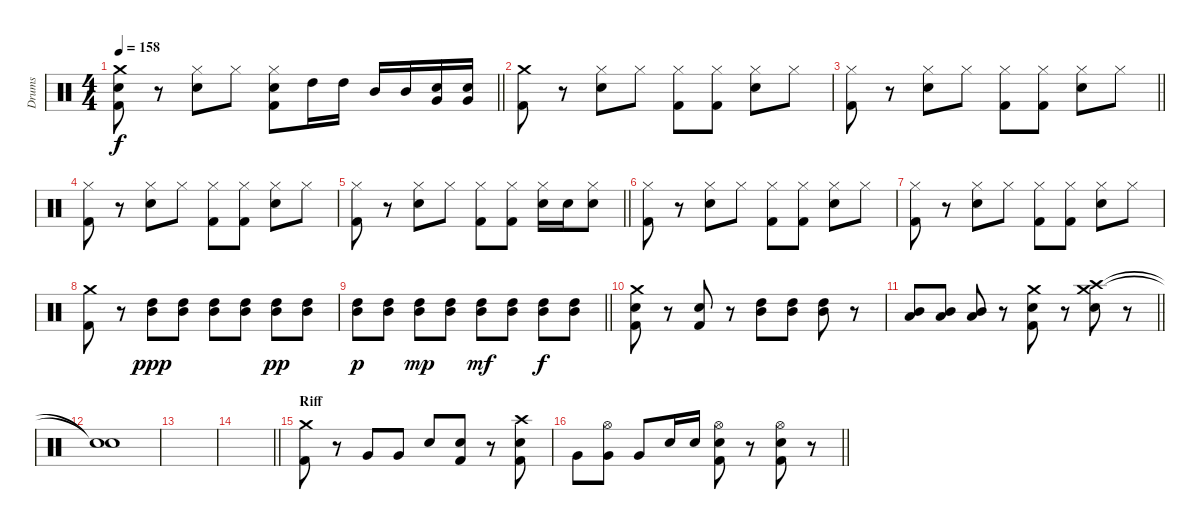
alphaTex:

\track ("Drums" "Drums") {instrument percussion}
\staff
\articulation defaults
\ts (4 4)
\tempo 158
\clef neutral
\barLineRight lightlight
\ks c
("Crash medium (hit)" "Electric Snare (hit)" "Kick (hit) 2").8{dy f} r.8 ("Hi-Hat (closed)" "Electric Snare (hit)").8 "Hi-Hat (closed)".8 ("Hi-Hat (closed)" "Electric Snare (hit)" "Kick (hit) 2").8 "High Tom (hit)".16 "High Tom (hit)".16 "Mid Tom (hit)".16 "Mid Tom (hit)".16 ("Electric Snare (hit)" "Very Low Tom (hit)").16 ("Electric Snare (hit)" "Very Low Tom (hit)").16 |
("Crash medium (hit)" "Kick (hit) 2").8 r.8 ("Hi-Hat (closed)" "Electric Snare (hit)").8 "Hi-Hat (closed)".8 ("Hi-Hat (closed)" "Kick (hit) 2").8 ("Hi-Hat (closed)" "Kick (hit) 2").8 ("Hi-Hat (closed)" "Electric Snare (hit)").8 "Hi-Hat (closed)".8 |
\barLineRight lightlight
("Hi-Hat (closed)" "Kick (hit) 2").8 r.8 ("Hi-Hat (closed)" "Electric Snare (hit)").8 "Hi-Hat (closed)".8 ("Hi-Hat (closed)" "Kick (hit) 2").8 ("Hi-Hat (closed)" "Kick (hit) 2").8 ("Hi-Hat (closed)" "Electric Snare (hit)").8 "Hi-Hat (closed)".8 |
("Hi-Hat (closed)" "Kick (hit) 2").8 r.8 ("Hi-Hat (closed)" "Electric Snare (hit)").8 "Hi-Hat (closed)".8 ("Hi-Hat (closed)" "Kick (hit) 2").8 ("Hi-Hat (closed)" "Kick (hit) 2").8 ("Hi-Hat (closed)" "Electric Snare (hit)").8 "Hi-Hat (closed)".8 |
\barLineRight lightlight
("Hi-Hat (closed)" "Kick (hit) 2").8 r.8 ("Hi-Hat (closed)" "Electric Snare (hit)").8 "Hi-Hat (closed)".8 ("Hi-Hat (closed)" "Kick (hit) 2").8 ("Hi-Hat (closed)" "Kick (hit) 2").8 ("Hi-Hat (closed)" "Electric Snare (hit)").16 "Electric Snare (hit)".16 ("Hi-Hat (closed)" "Electric Snare (hit)").8 |
("Hi-Hat (closed)" "Kick (hit) 2").8 r.8 ("Hi-Hat (closed)" "Electric Snare (hit)").8 "Hi-Hat (closed)".8 ("Hi-Hat (closed)" "Kick (hit) 2").8 ("Hi-Hat (closed)" "Kick (hit) 2").8 ("Hi-Hat (closed)" "Electric Snare (hit)").8 "Hi-Hat (closed)".8 |
("Hi-Hat (closed)" "Kick (hit) 2").8 r.8 ("Hi-Hat (closed)" "Electric Snare (hit)").8 "Hi-Hat (closed)".8 ("Hi-Hat (closed)" "Kick (hit) 2").8 ("Hi-Hat (closed)" "Kick (hit) 2").8 ("Hi-Hat (closed)" "Electric Snare (hit)").8 "Hi-Hat (closed)".8 |
("Crash medium (hit)" "Kick (hit) 2").8 r.8 ("High Tom (hit)" "Mid Tom (hit)").8{dy ppp} ("High Tom (hit)" "Mid Tom (hit)").8 ("High Tom (hit)" "Mid Tom (hit)").8 ("High Tom (hit)" "Mid Tom (hit)").8 ("High Tom (hit)" "Mid Tom (hit)").8{dy pp} ("High Tom (hit)" "Mid Tom (hit)").8 |
\barLineRight lightlight
("High Tom (hit)" "Mid Tom (hit)").8{dy p} ("High Tom (hit)" "Mid Tom (hit)").8 ("High Tom (hit)" "Mid Tom (hit)").8{dy mp} ("High Tom (hit)" "Mid Tom (hit)").8 ("High Tom (hit)" "Mid Tom (hit)").8{dy mf} ("High Tom (hit)" "Mid Tom (hit)").8 ("High Tom (hit)" "Mid Tom (hit)").8{dy f} ("High Tom (hit)" "Mid Tom (hit)").8 |
("Crash medium (hit)" "Electric Snare (hit)" "Kick (hit) 2").8 r.8 ("Electric Snare (hit)" "Kick (hit) 2").8 r.8 ("Mid Tom (hit)" "High Tom (hit)").8 ("Mid Tom (hit)" "High Tom (hit)").8 ("Mid Tom (hit)" "High Tom (hit)").8 r.8 |
\barLineRight lightlight
("Mid Tom (hit)" "Low Tom (hit)").8 ("Mid Tom (hit)" "Low Tom (hit)").8 ("Mid Tom (hit)" "Low Tom (hit)").8 r.8 ("Crash medium (hit)" "Electric Snare (hit)" "Kick (hit) 2").8 r.8 ("Crash medium (hit)" "Crash high (hit)" "Electric Snare (hit)").8 r.8 |
("Snare (hit)"{t} "Snare (hit)"{t}).1 |
|
\barLineRight lightlight
|
\section ("" "Riff")
("Crash medium (hit)" "Kick (hit) 2").8 r.8 "Very Low Tom (hit)".8 "Very Low Tom (hit)".8 "Electric Snare (hit)".8 ("Electric Snare (hit)" "Kick (hit) 2").8 r.8 ("Crash high (hit)" "Electric Snare (hit)" "Kick (hit) 2").8 |
\barLineRight lightlight "Very Low Tom (hit)".8
("Hi-Hat (open)" "Very Low Tom (hit)").8 "Very Low Tom (hit)".8 "Electric Snare (hit)".16 "Electric Snare (hit)".16 ("Hi-Hat (open)" "Electric Snare (hit)" "Kick (hit) 2").8 r.8 ("Hi-Hat (open)" "Electric Snare (hit)" "Kick (hit) 2").8 r.8
